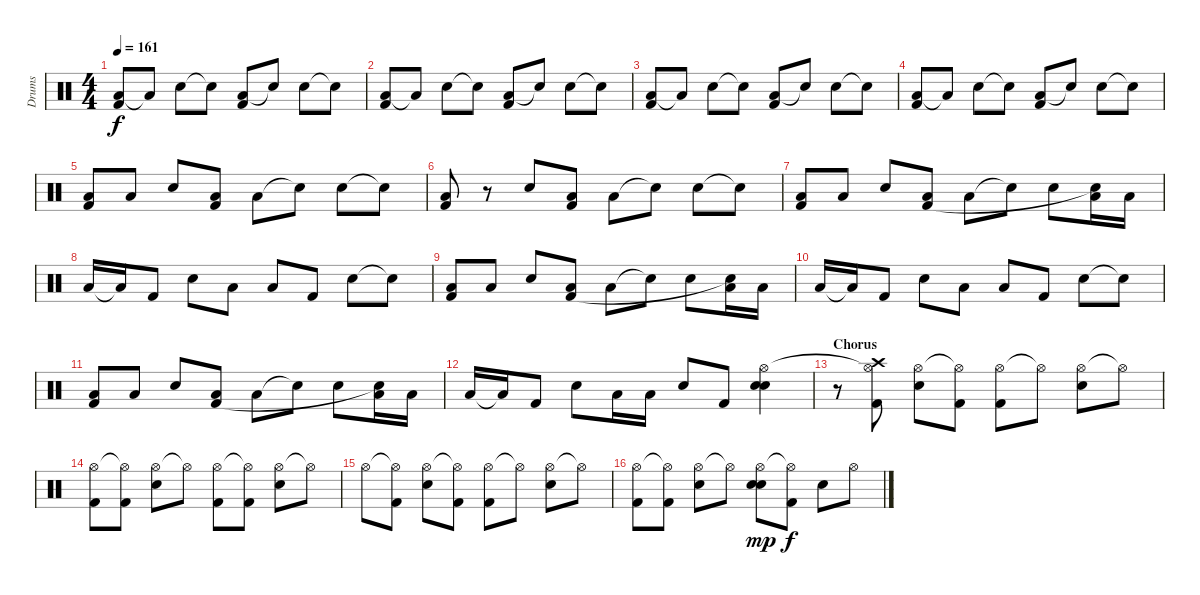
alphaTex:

\track ("Drums" "Drums") {instrument percussion}
\staff {score}
\articulation defaults
\ts (4 4)
\tempo 161
\clef neutral
\ks c
("Low Tom (hit)" "Kick (hit) 2").8{dy f volume 14} "Low Tom (hit)"{t}.8 "Electric Snare (hit)".8 "Snare (hit)"{t}.8 ("Low Tom (hit)" "Kick (hit) 2").8 "Snare (hit)"{t}.8 "Electric Snare (hit)".8 "Snare (hit)"{t}.8 |
("Low Tom (hit)" "Kick (hit) 2").8 "Low Tom (hit)"{t}.8 "Electric Snare (hit)".8 "Snare (hit)"{t}.8 ("Low Tom (hit)" "Kick (hit) 2").8 "Snare (hit)"{t}.8 "Electric Snare (hit)".8 "Snare (hit)"{t}.8 |
("Low Tom (hit)" "Kick (hit) 2").8 "Low Tom (hit)"{t}.8 "Electric Snare (hit)".8 "Snare (hit)"{t}.8 ("Low Tom (hit)" "Kick (hit) 2").8 "Snare (hit)"{t}.8 "Electric Snare (hit)".8 "Snare (hit)"{t}.8 |
("Low Tom (hit)" "Kick (hit) 2").8 "Low Tom (hit)"{t}.8 "Electric Snare (hit)".8 "Snare (hit)"{t}.8 ("Low Tom (hit)" "Kick (hit) 2").8 "Snare (hit)"{t}.8 "Electric Snare (hit)".8 "Snare (hit)"{t}.8 |
("Low Tom (hit)" "Kick (hit) 2").8 "Low Tom (hit)".8 "Electric Snare (hit)".8 ("Low Tom (hit)" "Kick (hit) 2").8 "Low Tom (hit)".8 "Snare (hit)"{t}.8 "Electric Snare (hit)".8 "Snare (hit)"{t}.8 |
("Low Tom (hit)" "Kick (hit) 2").8 r.8 "Electric Snare (hit)".8 ("Low Tom (hit)" "Kick (hit) 2").8 "Low Tom (hit)".8 "Snare (hit)"{t}.8 "Electric Snare (hit)".8 "Snare (hit)"{t}.8 |
("Low Tom (hit)" "Kick (hit) 2").8 "Low Tom (hit)".8 "Electric Snare (hit)".8 ("Low Tom (hit)" "Kick (hit) 2").8 "Low Tom (hit)".8 "Snare (hit)"{t}.8 "Electric Snare (hit)".8 ("Low Tom (hit)" "Snare (hit)"{t}).16 "Low Tom (hit)".16 |
"Low Tom (hit)".16 "Low Tom (hit)"{t}.16 "Kick (hit) 2".8 "Electric Snare (hit)".8 "Low Tom (hit)".8 "Low Tom (hit)".8 "Kick (hit) 2".8 "Electric Snare (hit)".8 "Snare (hit)"{t}.8 |
("Low Tom (hit)" "Kick (hit) 2").8 "Low Tom (hit)".8 "Electric Snare (hit)".8 ("Low Tom (hit)" "Kick (hit) 2").8 "Low Tom (hit)".8 "Snare (hit)"{t}.8 "Electric Snare (hit)".8 ("Low Tom (hit)" "Snare (hit)"{t}).16 "Low Tom (hit)".16 |
"Low Tom (hit)".16 "Low Tom (hit)"{t}.16 "Kick (hit) 2".8 "Electric Snare (hit)".8 "Low Tom (hit)".8 "Low Tom (hit)".8 "Kick (hit) 2".8 "Electric Snare (hit)".8 "Snare (hit)"{t}.8 |
("Low Tom (hit)" "Kick (hit) 2").8 "Low Tom (hit)".8 "Electric Snare (hit)".8 ("Low Tom (hit)" "Kick (hit) 2").8 "Low Tom (hit)".8 "Snare (hit)"{t}.8 "Electric Snare (hit)".8 ("Low Tom (hit)" "Snare (hit)"{t}).16 "Low Tom (hit)".16 |
"Low Tom (hit)".16 "Low Tom (hit)"{t}.16 "Kick (hit) 2".8 "Electric Snare (hit)".8 "Low Tom (hit)".16 "Low Tom (hit)".16 "Electric Snare (hit)".8 "Kick (hit) 2".8 ("Hi-Hat (open)" "Electric Snare (hit)" "Electric Snare (hit)").4 |
\section ("" "Chorus")
r.8 ("Hi-Hat (open)"{t} "Kick (hit) 2" "Crash high (hit)").8 ("Hi-Hat (open)" "Electric Snare (hit)").8 ("Hi-Hat (open)"{t} "Kick (hit) 2").8 ("Hi-Hat (open)" "Kick (hit) 2").8 "Hi-Hat (open)"{t}.8 ("Hi-Hat (open)" "Electric Snare (hit)").8 "Hi-Hat (open)"{t}.8 |
("Hi-Hat (open)" "Kick (hit) 2").8 ("Hi-Hat (open)"{t} "Kick (hit) 2").8 ("Hi-Hat (open)" "Electric Snare (hit)").8 "Hi-Hat (open)"{t}.8 ("Hi-Hat (open)" "Kick (hit) 2").8 ("Hi-Hat (open)"{t} "Kick (hit) 2").8 ("Hi-Hat (open)" "Electric Snare (hit)").8 "Hi-Hat (open)"{t}.8 |
"Hi-Hat (open)".8 ("Hi-Hat (open)"{t} "Kick (hit) 2").8 ("Hi-Hat (open)" "Electric Snare (hit)").8 ("Hi-Hat (open)"{t} "Kick (hit) 2").8 ("Hi-Hat (open)" "Kick (hit) 2").8 "Hi-Hat (open)"{t}.8 ("Hi-Hat (open)" "Electric Snare (hit)").8 "Hi-Hat (open)"{t}.8 |
("Hi-Hat (open)" "Kick (hit) 2").8 ("Hi-Hat (open)"{t} "Kick (hit) 2").8 ("Hi-Hat (open)" "Electric Snare (hit)").8 "Hi-Hat (open)"{t}.8 ("Hi-Hat (open)" "Electric Snare (hit)" "Electric Snare (hit)").8{dy mp} ("Hi-Hat (open)"{t} "Kick (hit) 2").8{dy f} "Electric Snare (hit)".8 "Hi-Hat (open)".8
